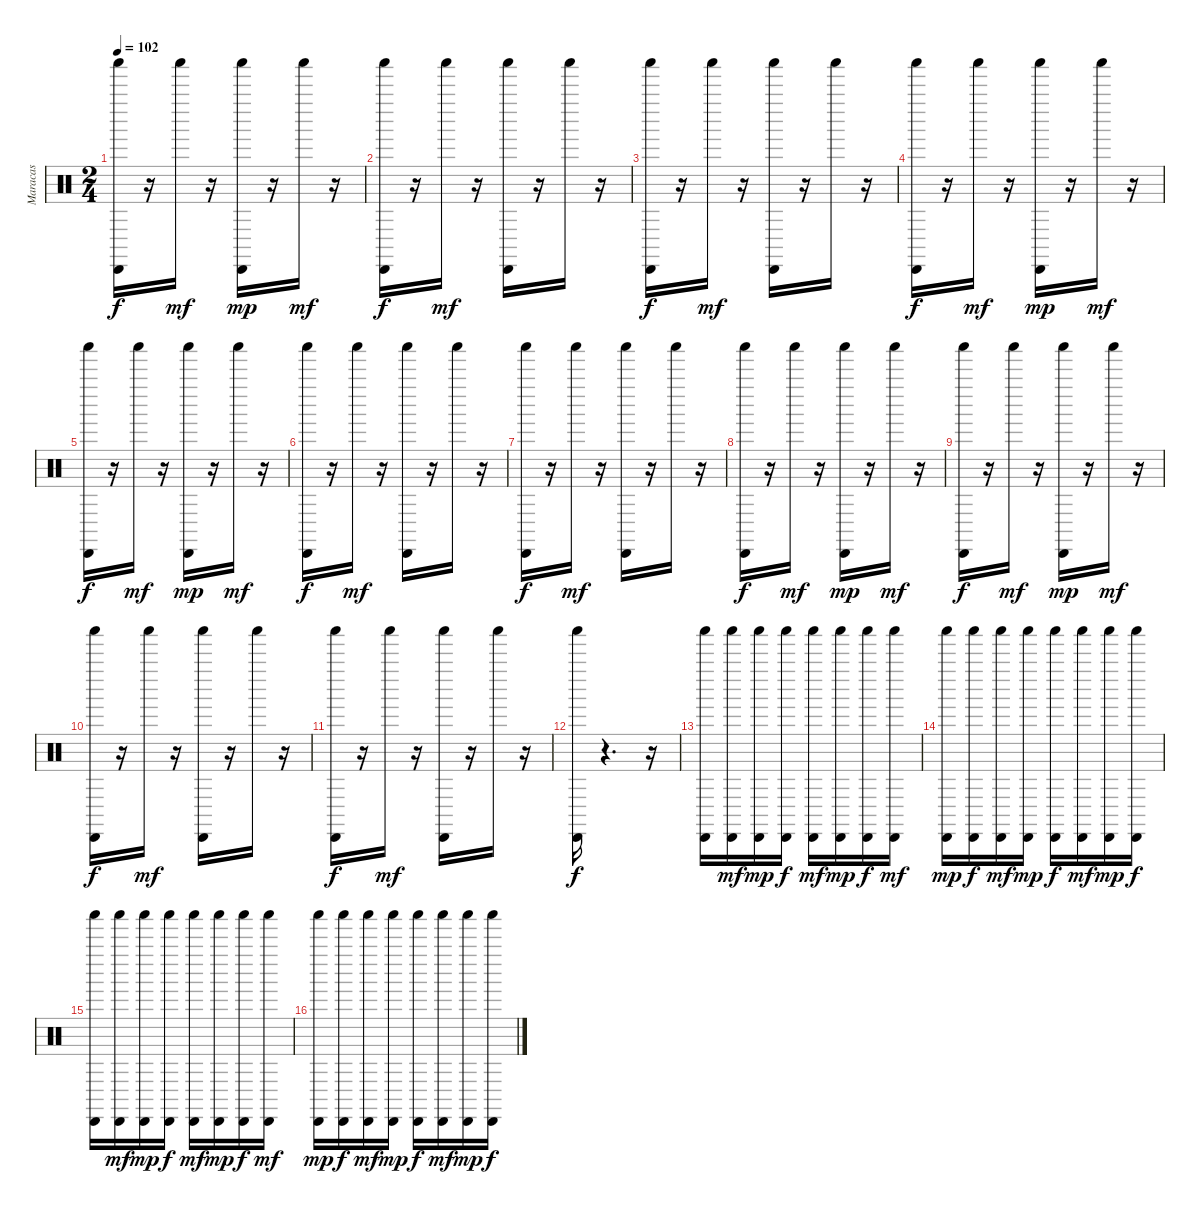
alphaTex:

\track ("Maracas" "Maracas") {instrument percussion}
\staff {score}
\articulation defaults
\ts (2 4)
\tempo 102
\clef neutral
\ks c
("Cabasa (hit)" "Shaker (hit)").16{dy f} r.16 "Shaker (hit)".16{dy mf} r.16 ("Cabasa (hit)" "Shaker (hit)").16{dy mp} r.16 "Shaker (hit)".16{dy mf} r.16 |
("Cabasa (hit)" "Shaker (hit)").16{dy f} r.16 "Shaker (hit)".16{dy mf} r.16 ("Cabasa (hit)" "Shaker (hit)").16 r.16 "Shaker (hit)".16 r.16 |
("Shaker (hit)" "Cabasa (hit)").16{dy f} r.16 "Shaker (hit)".16{dy mf} r.16 ("Shaker (hit)" "Cabasa (hit)").16 r.16 "Shaker (hit)".16 r.16 |
("Shaker (hit)" "Cabasa (hit)").16{dy f} r.16 "Shaker (hit)".16{dy mf} r.16 ("Shaker (hit)" "Cabasa (hit)").16{dy mp} r.16 "Shaker (hit)".16{dy mf} r.16 |
("Cabasa (hit)" "Shaker (hit)").16{dy f} r.16 "Shaker (hit)".16{dy mf} r.16 ("Cabasa (hit)" "Shaker (hit)").16{dy mp} r.16 "Shaker (hit)".16{dy mf} r.16 |
("Cabasa (hit)" "Shaker (hit)").16{dy f} r.16 "Shaker (hit)".16{dy mf} r.16 ("Cabasa (hit)" "Shaker (hit)").16 r.16 "Shaker (hit)".16 r.16 |
("Shaker (hit)" "Cabasa (hit)").16{dy f} r.16 "Shaker (hit)".16{dy mf} r.16 ("Shaker (hit)" "Cabasa (hit)").16 r.16 "Shaker (hit)".16 r.16 |
("Shaker (hit)" "Cabasa (hit)").16{dy f} r.16 "Shaker (hit)".16{dy mf} r.16 ("Shaker (hit)" "Cabasa (hit)").16{dy mp} r.16 "Shaker (hit)".16{dy mf} r.16 |
("Cabasa (hit)" "Shaker (hit)").16{dy f} r.16 "Shaker (hit)".16{dy mf} r.16 ("Cabasa (hit)" "Shaker (hit)").16{dy mp} r.16 "Shaker (hit)".16{dy mf} r.16 |
("Cabasa (hit)" "Shaker (hit)").16{dy f} r.16 "Shaker (hit)".16{dy mf} r.16 ("Cabasa (hit)" "Shaker (hit)").16 r.16 "Shaker (hit)".16 r.16 |
("Shaker (hit)" "Cabasa (hit)").16{dy f} r.16 "Shaker (hit)".16{dy mf} r.16 ("Shaker (hit)" "Cabasa (hit)").16 r.16 "Shaker (hit)".16 r.16 |
("Shaker (hit)" "Cabasa (hit)").16{dy f} r.4{d} r.16 |
("Shaker (hit)" "Cabasa (hit)").16 ("Shaker (hit)" "Cabasa (hit)").16{dy mf} ("Shaker (hit)" "Cabasa (hit)").16{dy mp} ("Shaker (hit)" "Cabasa (hit)").16{dy f} ("Shaker (hit)" "Cabasa (hit)").16{dy mf} ("Shaker (hit)" "Cabasa (hit)").16{dy mp} ("Shaker (hit)" "Cabasa (hit)").16{dy f} ("Shaker (hit)" "Cabasa (hit)").16{dy mf} |
("Shaker (hit)" "Cabasa (hit)").16{dy mp} ("Shaker (hit)" "Cabasa (hit)").16{dy f} ("Shaker (hit)" "Cabasa (hit)").16{dy mf} ("Shaker (hit)" "Cabasa (hit)").16{dy mp} ("Shaker (hit)" "Cabasa (hit)").16{dy f} ("Shaker (hit)" "Cabasa (hit)").16{dy mf} ("Shaker (hit)" "Cabasa (hit)").16{dy mp} ("Shaker (hit)" "Cabasa (hit)").16{dy f} |
("Cabasa (hit)" "Shaker (hit)").16 ("Cabasa (hit)" "Shaker (hit)").16{dy mf} ("Cabasa (hit)" "Shaker (hit)").16{dy mp} ("Cabasa (hit)" "Shaker (hit)").16{dy f} ("Cabasa (hit)" "Shaker (hit)").16{dy mf} ("Cabasa (hit)" "Shaker (hit)").16{dy mp} ("Cabasa (hit)" "Shaker (hit)").16{dy f} ("Cabasa (hit)" "Shaker (hit)").16{dy mf} |
("Cabasa (hit)" "Shaker (hit)").16{dy mp} ("Cabasa (hit)" "Shaker (hit)").16{dy f} ("Cabasa (hit)" "Shaker (hit)").16{dy mf} ("Cabasa (hit)" "Shaker (hit)").16{dy mp} ("Cabasa (hit)" "Shaker (hit)").16{dy f} ("Cabasa (hit)" "Shaker (hit)").16{dy mf} ("Cabasa (hit)" "Shaker (hit)").16{dy mp} ("Cabasa (hit)" "Shaker (hit)").16{dy f}
